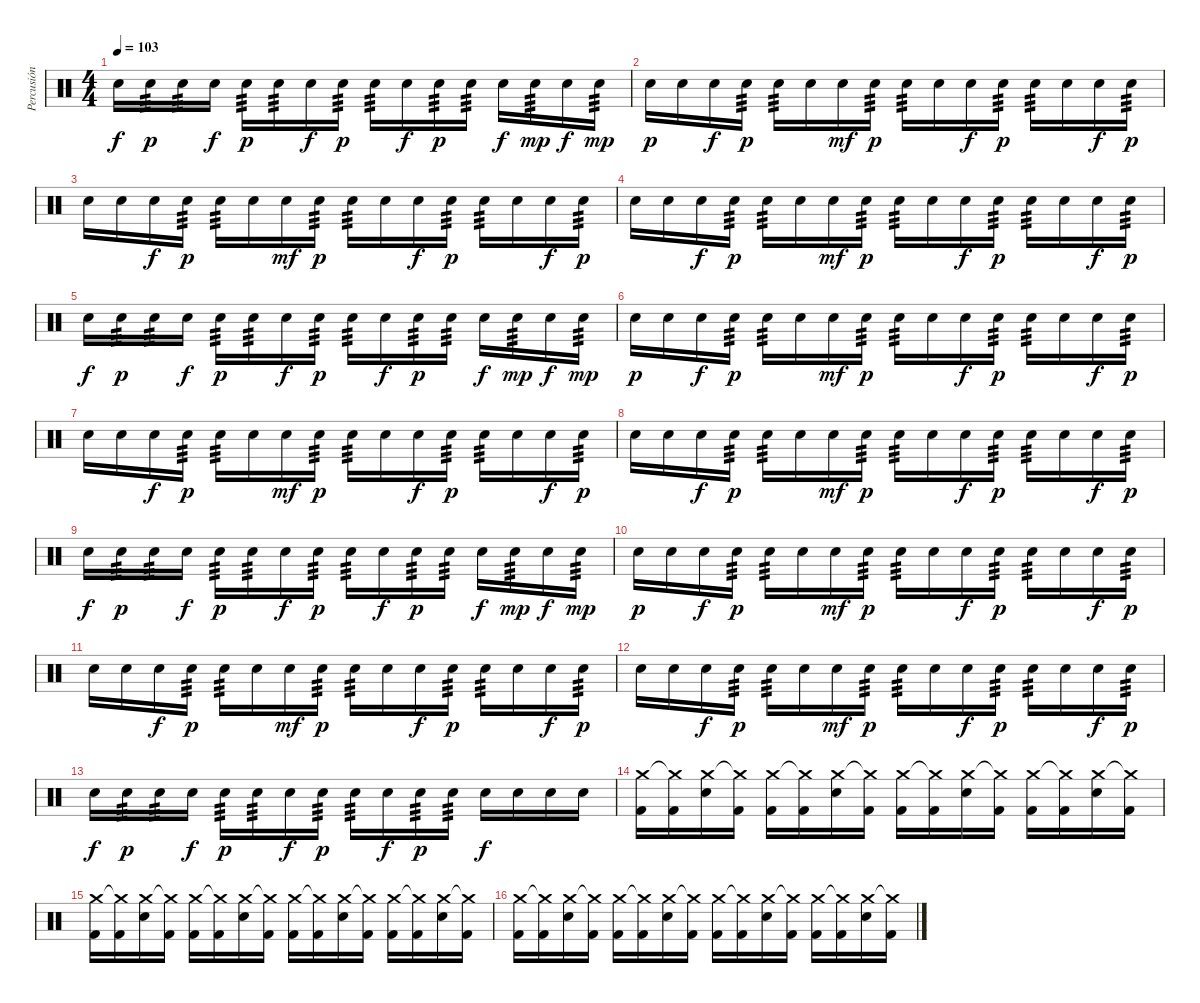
\track ("Percusión" "Percusión") {instrument percussion}
\staff {score}
\articulation defaults
\ts (4 4)
\tempo 103
\clef neutral
\ks c "Electric Snare (hit)".16{dy f} "Electric Snare (hit)".16{tp 3 dy p} "Electric Snare (hit)".16{tp 3} "Electric Snare (hit)".16{dy f} "Electric Snare (hit)".16{tp 3 dy p} "Electric Snare (hit)".16{tp 3} "Electric Snare (hit)".16{dy f} "Electric Snare (hit)".16{tp 3 dy p} "Electric Snare (hit)".16{tp 3} "Electric Snare (hit)".16{dy f} "Electric Snare (hit)".16{tp 3 dy p} "Electric Snare (hit)".16{tp 3} "Electric Snare (hit)".16{dy f} "Electric Snare (hit)".16{tp 3 dy mp} "Electric Snare (hit)".16{dy f} "Electric Snare (hit)".16{tp 3 dy mp}
|
"Electric Snare (hit)".16{dy p} "Electric Snare (hit)".16 "Electric Snare (hit)".16{dy f} "Electric Snare (hit)".16{tp 3 dy p} "Electric Snare (hit)".16{tp 3} "Electric Snare (hit)".16 "Electric Snare (hit)".16{dy mf} "Electric Snare (hit)".16{tp 3 dy p} "Electric Snare (hit)".16{tp 3} "Electric Snare (hit)".16 "Electric Snare (hit)".16{dy f} "Electric Snare (hit)".16{tp 3 dy p} "Electric Snare (hit)".16{tp 3} "Electric Snare (hit)".16 "Electric Snare (hit)".16{dy f} "Electric Snare (hit)".16{tp 3 dy p} |
"Electric Snare (hit)".16 "Electric Snare (hit)".16 "Electric Snare (hit)".16{dy f} "Electric Snare (hit)".16{tp 3 dy p} "Electric Snare (hit)".16{tp 3} "Electric Snare (hit)".16 "Electric Snare (hit)".16{dy mf} "Electric Snare (hit)".16{tp 3 dy p} "Electric Snare (hit)".16{tp 3} "Electric Snare (hit)".16 "Electric Snare (hit)".16{dy f} "Electric Snare (hit)".16{tp 3 dy p} "Electric Snare (hit)".16{tp 3} "Electric Snare (hit)".16 "Electric Snare (hit)".16{dy f} "Electric Snare (hit)".16{tp 3 dy p} |
"Electric Snare (hit)".16 "Electric Snare (hit)".16 "Electric Snare (hit)".16{dy f} "Electric Snare (hit)".16{tp 3 dy p} "Electric Snare (hit)".16{tp 3} "Electric Snare (hit)".16 "Electric Snare (hit)".16{dy mf} "Electric Snare (hit)".16{tp 3 dy p} "Electric Snare (hit)".16{tp 3} "Electric Snare (hit)".16 "Electric Snare (hit)".16{dy f} "Electric Snare (hit)".16{tp 3 dy p} "Electric Snare (hit)".16{tp 3} "Electric Snare (hit)".16 "Electric Snare (hit)".16{dy f} "Electric Snare (hit)".16{tp 3 dy p} |
"Electric Snare (hit)".16{dy f} "Electric Snare (hit)".16{tp 3 dy p} "Electric Snare (hit)".16{tp 3} "Electric Snare (hit)".16{dy f} "Electric Snare (hit)".16{tp 3 dy p} "Electric Snare (hit)".16{tp 3} "Electric Snare (hit)".16{dy f} "Electric Snare (hit)".16{tp 3 dy p} "Electric Snare (hit)".16{tp 3} "Electric Snare (hit)".16{dy f} "Electric Snare (hit)".16{tp 3 dy p} "Electric Snare (hit)".16{tp 3} "Electric Snare (hit)".16{dy f} "Electric Snare (hit)".16{tp 3 dy mp} "Electric Snare (hit)".16{dy f} "Electric Snare (hit)".16{tp 3 dy mp} |
"Electric Snare (hit)".16{dy p} "Electric Snare (hit)".16 "Electric Snare (hit)".16{dy f} "Electric Snare (hit)".16{tp 3 dy p} "Electric Snare (hit)".16{tp 3} "Electric Snare (hit)".16 "Electric Snare (hit)".16{dy mf} "Electric Snare (hit)".16{tp 3 dy p} "Electric Snare (hit)".16{tp 3} "Electric Snare (hit)".16 "Electric Snare (hit)".16{dy f} "Electric Snare (hit)".16{tp 3 dy p} "Electric Snare (hit)".16{tp 3} "Electric Snare (hit)".16 "Electric Snare (hit)".16{dy f} "Electric Snare (hit)".16{tp 3 dy p} |
"Electric Snare (hit)".16 "Electric Snare (hit)".16 "Electric Snare (hit)".16{dy f} "Electric Snare (hit)".16{tp 3 dy p} "Electric Snare (hit)".16{tp 3} "Electric Snare (hit)".16 "Electric Snare (hit)".16{dy mf} "Electric Snare (hit)".16{tp 3 dy p} "Electric Snare (hit)".16{tp 3} "Electric Snare (hit)".16 "Electric Snare (hit)".16{dy f} "Electric Snare (hit)".16{tp 3 dy p} "Electric Snare (hit)".16{tp 3} "Electric Snare (hit)".16 "Electric Snare (hit)".16{dy f} "Electric Snare (hit)".16{tp 3 dy p} |
"Electric Snare (hit)".16 "Electric Snare (hit)".16 "Electric Snare (hit)".16{dy f} "Electric Snare (hit)".16{tp 3 dy p} "Electric Snare (hit)".16{tp 3} "Electric Snare (hit)".16 "Electric Snare (hit)".16{dy mf} "Electric Snare (hit)".16{tp 3 dy p} "Electric Snare (hit)".16{tp 3} "Electric Snare (hit)".16 "Electric Snare (hit)".16{dy f} "Electric Snare (hit)".16{tp 3 dy p} "Electric Snare (hit)".16{tp 3} "Electric Snare (hit)".16 "Electric Snare (hit)".16{dy f} "Electric Snare (hit)".16{tp 3 dy p} |
"Electric Snare (hit)".16{dy f} "Electric Snare (hit)".16{tp 3 dy p} "Electric Snare (hit)".16{tp 3} "Electric Snare (hit)".16{dy f} "Electric Snare (hit)".16{tp 3 dy p} "Electric Snare (hit)".16{tp 3} "Electric Snare (hit)".16{dy f} "Electric Snare (hit)".16{tp 3 dy p} "Electric Snare (hit)".16{tp 3} "Electric Snare (hit)".16{dy f} "Electric Snare (hit)".16{tp 3 dy p} "Electric Snare (hit)".16{tp 3} "Electric Snare (hit)".16{dy f} "Electric Snare (hit)".16{tp 3 dy mp} "Electric Snare (hit)".16{dy f} "Electric Snare (hit)".16{tp 3 dy mp} |
"Electric Snare (hit)".16{dy p} "Electric Snare (hit)".16 "Electric Snare (hit)".16{dy f} "Electric Snare (hit)".16{tp 3 dy p} "Electric Snare (hit)".16{tp 3} "Electric Snare (hit)".16 "Electric Snare (hit)".16{dy mf} "Electric Snare (hit)".16{tp 3 dy p} "Electric Snare (hit)".16{tp 3} "Electric Snare (hit)".16 "Electric Snare (hit)".16{dy f} "Electric Snare (hit)".16{tp 3 dy p} "Electric Snare (hit)".16{tp 3} "Electric Snare (hit)".16 "Electric Snare (hit)".16{dy f} "Electric Snare (hit)".16{tp 3 dy p} |
"Electric Snare (hit)".16 "Electric Snare (hit)".16 "Electric Snare (hit)".16{dy f} "Electric Snare (hit)".16{tp 3 dy p} "Electric Snare (hit)".16{tp 3} "Electric Snare (hit)".16 "Electric Snare (hit)".16{dy mf} "Electric Snare (hit)".16{tp 3 dy p} "Electric Snare (hit)".16{tp 3} "Electric Snare (hit)".16 "Electric Snare (hit)".16{dy f} "Electric Snare (hit)".16{tp 3 dy p} "Electric Snare (hit)".16{tp 3} "Electric Snare (hit)".16 "Electric Snare (hit)".16{dy f} "Electric Snare (hit)".16{tp 3 dy p} |
"Electric Snare (hit)".16 "Electric Snare (hit)".16 "Electric Snare (hit)".16{dy f} "Electric Snare (hit)".16{tp 3 dy p} "Electric Snare (hit)".16{tp 3} "Electric Snare (hit)".16 "Electric Snare (hit)".16{dy mf} "Electric Snare (hit)".16{tp 3 dy p} "Electric Snare (hit)".16{tp 3} "Electric Snare (hit)".16 "Electric Snare (hit)".16{dy f} "Electric Snare (hit)".16{tp 3 dy p} "Electric Snare (hit)".16{tp 3} "Electric Snare (hit)".16 "Electric Snare (hit)".16{dy f} "Electric Snare (hit)".16{tp 3 dy p} |
"Electric Snare (hit)".16{dy f} "Electric Snare (hit)".16{tp 3 dy p} "Electric Snare (hit)".16{tp 3} "Electric Snare (hit)".16{dy f} "Electric Snare (hit)".16{tp 3 dy p} "Electric Snare (hit)".16{tp 3} "Electric Snare (hit)".16{dy f} "Electric Snare (hit)".16{tp 3 dy p} "Electric Snare (hit)".16{tp 3} "Electric Snare (hit)".16{dy f} "Electric Snare (hit)".16{tp 3 dy p} "Electric Snare (hit)".16{tp 3} "Electric Snare (hit)".16{dy f} "Electric Snare (hit)".16 "Electric Snare (hit)".16 "Electric Snare (hit)".16 |
("Kick (hit) 2" "Crash medium (hit)").16 ("Kick (hit) 2" "Crash medium (hit)"{t}).16 ("Electric Snare (hit)" "Crash medium (hit)").16 ("Kick (hit) 2" "Crash medium (hit)"{t}).16 ("Kick (hit) 2" "Crash medium (hit)").16 ("Kick (hit) 2" "Crash medium (hit)"{t}).16 ("Electric Snare (hit)" "Crash medium (hit)").16 ("Kick (hit) 2" "Crash medium (hit)"{t}).16 ("Kick (hit) 2" "Crash medium (hit)").16 ("Kick (hit) 2" "Crash medium (hit)"{t}).16 ("Electric Snare (hit)" "Crash medium (hit)").16 ("Kick (hit) 2" "Crash medium (hit)"{t}).16 ("Kick (hit) 2" "Crash medium (hit)").16 ("Kick (hit) 2" "Crash medium (hit)"{t}).16 ("Electric Snare (hit)" "Crash medium (hit)").16 ("Kick (hit) 2" "Crash medium (hit)"{t}).16 |
("Kick (hit) 2" "Crash medium (hit)").16 ("Kick (hit) 2" "Crash medium (hit)"{t}).16 ("Electric Snare (hit)" "Crash medium (hit)").16 ("Kick (hit) 2" "Crash medium (hit)"{t}).16 ("Kick (hit) 2" "Crash medium (hit)").16 ("Kick (hit) 2" "Crash medium (hit)"{t}).16 ("Electric Snare (hit)" "Crash medium (hit)").16 ("Kick (hit) 2" "Crash medium (hit)"{t}).16 ("Kick (hit) 2" "Crash medium (hit)").16 ("Kick (hit) 2" "Crash medium (hit)"{t}).16 ("Electric Snare (hit)" "Crash medium (hit)").16 ("Kick (hit) 2" "Crash medium (hit)"{t}).16 ("Kick (hit) 2" "Crash medium (hit)").16 ("Kick (hit) 2" "Crash medium (hit)"{t}).16 ("Electric Snare (hit)" "Crash medium (hit)").16 ("Kick (hit) 2" "Crash medium (hit)"{t}).16 |
("Kick (hit) 2" "Crash medium (hit)").16 ("Kick (hit) 2" "Crash medium (hit)"{t}).16 ("Electric Snare (hit)" "Crash medium (hit)").16 ("Kick (hit) 2" "Crash medium (hit)"{t}).16 ("Kick (hit) 2" "Crash medium (hit)").16 ("Kick (hit) 2" "Crash medium (hit)"{t}).16 ("Electric Snare (hit)" "Crash medium (hit)").16 ("Kick (hit) 2" "Crash medium (hit)"{t}).16 ("Kick (hit) 2" "Crash medium (hit)").16 ("Kick (hit) 2" "Crash medium (hit)"{t}).16 ("Electric Snare (hit)" "Crash medium (hit)").16 ("Kick (hit) 2" "Crash medium (hit)"{t}).16 ("Kick (hit) 2" "Crash medium (hit)").16 ("Kick (hit) 2" "Crash medium (hit)"{t}).16 ("Electric Snare (hit)" "Crash medium (hit)").16 ("Kick (hit) 2" "Crash medium (hit)"{t}).16
